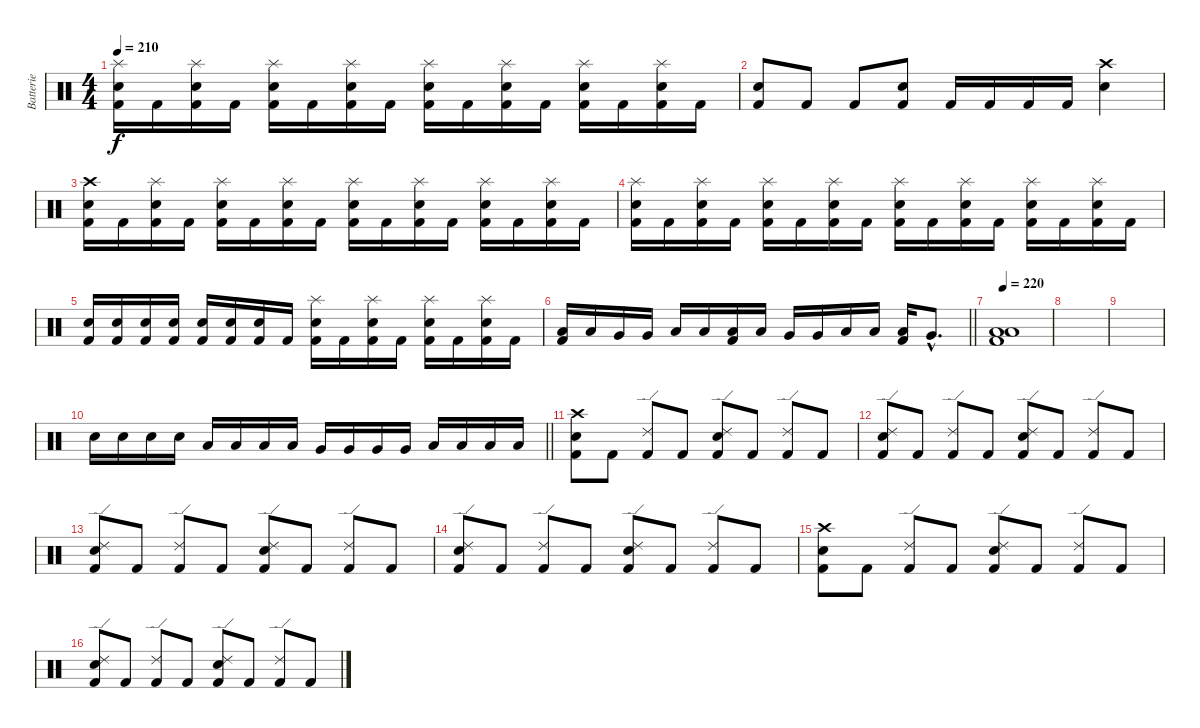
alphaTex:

\track ("Batterie" "Batterie") {instrument percussion}
\staff {score}
\articulation defaults
\ts (4 4)
\tempo 210
\clef neutral
\ks c
("Splash (hit)" "Electric Snare (hit)" "Kick (hit) 2").16{dy f} "Kick (hit) 2".16 ("Splash (hit)" "Electric Snare (hit)" "Kick (hit) 2").16 "Kick (hit) 2".16 ("Splash (hit)" "Electric Snare (hit)" "Kick (hit) 2").16 "Kick (hit) 2".16 ("Splash (hit)" "Electric Snare (hit)" "Kick (hit) 2").16 "Kick (hit) 2".16 ("Splash (hit)" "Electric Snare (hit)" "Kick (hit) 2").16 "Kick (hit) 2".16 ("Splash (hit)" "Electric Snare (hit)" "Kick (hit) 2").16 "Kick (hit) 2".16 ("Splash (hit)" "Electric Snare (hit)" "Kick (hit) 2").16 "Kick (hit) 2".16 ("Splash (hit)" "Electric Snare (hit)" "Kick (hit) 2").16 "Kick (hit) 2".16 |
("Electric Snare (hit)" "Kick (hit) 2").8 "Kick (hit) 2".8 "Kick (hit) 2".8 ("Electric Snare (hit)" "Kick (hit) 2").8 "Kick (hit) 2".16 "Kick (hit) 2".16 "Kick (hit) 2".16 "Kick (hit) 2".16 ("Crash high (hit)" "Electric Snare (hit)").4 |
("Crash high (hit)" "Electric Snare (hit)" "Kick (hit) 2").16 "Kick (hit) 2".16 ("Splash (hit)" "Electric Snare (hit)" "Kick (hit) 2").16 "Kick (hit) 2".16 ("Splash (hit)" "Electric Snare (hit)" "Kick (hit) 2").16 "Kick (hit) 2".16 ("Splash (hit)" "Electric Snare (hit)" "Kick (hit) 2").16 "Kick (hit) 2".16 ("Splash (hit)" "Electric Snare (hit)" "Kick (hit) 2").16 "Kick (hit) 2".16 ("Splash (hit)" "Electric Snare (hit)" "Kick (hit) 2").16 "Kick (hit) 2".16 ("Splash (hit)" "Electric Snare (hit)" "Kick (hit) 2").16 "Kick (hit) 2".16 ("Splash (hit)" "Electric Snare (hit)" "Kick (hit) 2").16 "Kick (hit) 2".16 |
("Splash (hit)" "Electric Snare (hit)" "Kick (hit) 2").16 "Kick (hit) 2".16 ("Splash (hit)" "Electric Snare (hit)" "Kick (hit) 2").16 "Kick (hit) 2".16 ("Splash (hit)" "Electric Snare (hit)" "Kick (hit) 2").16 "Kick (hit) 2".16 ("Splash (hit)" "Electric Snare (hit)" "Kick (hit) 2").16 "Kick (hit) 2".16 ("Splash (hit)" "Electric Snare (hit)" "Kick (hit) 2").16 "Kick (hit) 2".16 ("Splash (hit)" "Electric Snare (hit)" "Kick (hit) 2").16 "Kick (hit) 2".16 ("Splash (hit)" "Electric Snare (hit)" "Kick (hit) 2").16 "Kick (hit) 2".16 ("Splash (hit)" "Electric Snare (hit)" "Kick (hit) 2").16 "Kick (hit) 2".16 |
("Electric Snare (hit)" "Kick (hit) 2").16 ("Electric Snare (hit)" "Kick (hit) 2").16 ("Electric Snare (hit)" "Kick (hit) 2").16 ("Electric Snare (hit)" "Kick (hit) 2").16 ("Electric Snare (hit)" "Kick (hit) 2").16 ("Electric Snare (hit)" "Kick (hit) 2").16 ("Electric Snare (hit)" "Kick (hit) 2").16 "Kick (hit) 2".16 ("Splash (hit)" "Electric Snare (hit)" "Kick (hit) 2").16 "Kick (hit) 2".16 ("Splash (hit)" "Electric Snare (hit)" "Kick (hit) 2").16 "Kick (hit) 2".16 ("Splash (hit)" "Electric Snare (hit)" "Kick (hit) 2").16 "Kick (hit) 2".16 ("Splash (hit)" "Electric Snare (hit)" "Kick (hit) 2").16 "Kick (hit) 2".16 |
\barLineRight lightlight
("Low Tom (hit)" "Kick (hit) 2").16 "Low Tom (hit)".16 "Very Low Tom (hit)".16 "Very Low Tom (hit)".16 "Low Floor Tom (hit)".16 "Low Floor Tom (hit)".16 ("Low Tom (hit)" "Kick (hit) 2").16 "Low Tom (hit)".16 "Very Low Tom (hit)".16 "Very Low Tom (hit)".16 "Low Floor Tom (hit)".16 "Low Floor Tom (hit)".16 ("Low Tom (hit)" "Kick (hit) 2").16 "Very Low Tom (hit)"{hac}.8{d} |
\tempo 220
("Low Tom (hit)" "Low Floor Tom (hit)" "Kick (hit) 2").1 |
|
|
\barLineRight lightlight "Electric Snare (hit)".16 "Electric Snare (hit)".16 "Electric Snare (hit)".16 "Electric Snare (hit)".16 "Low Tom (hit)".16 "Low Tom (hit)".16 "Low Tom (hit)".16 "Low Tom (hit)".16 "Very Low Tom (hit)".16 "Very Low Tom (hit)".16 "Very Low Tom (hit)".16 "Very Low Tom (hit)".16 "Low Floor Tom (hit)".16 "Low Floor Tom (hit)".16 "Low Floor Tom (hit)".16 "Low Floor Tom (hit)".16
|
("Crash high (hit)" "Electric Snare (hit)" "Kick (hit) 2").8 "Kick (hit) 2".8 ("Ride (edge) 2" "Kick (hit) 2").8 "Kick (hit) 2".8 ("Ride (edge) 2" "Electric Snare (hit)" "Kick (hit) 2").8 "Kick (hit) 2".8 ("Ride (edge) 2" "Kick (hit) 2").8 "Kick (hit) 2".8 |
("Ride (edge) 2" "Electric Snare (hit)" "Kick (hit) 2").8 "Kick (hit) 2".8 ("Ride (edge) 2" "Kick (hit) 2").8 "Kick (hit) 2".8 ("Ride (edge) 2" "Electric Snare (hit)" "Kick (hit) 2").8 "Kick (hit) 2".8 ("Ride (edge) 2" "Kick (hit) 2").8 "Kick (hit) 2".8 |
("Ride (edge) 2" "Electric Snare (hit)" "Kick (hit) 2").8 "Kick (hit) 2".8 ("Ride (edge) 2" "Kick (hit) 2").8 "Kick (hit) 2".8 ("Ride (edge) 2" "Electric Snare (hit)" "Kick (hit) 2").8 "Kick (hit) 2".8 ("Ride (edge) 2" "Kick (hit) 2").8 "Kick (hit) 2".8 |
("Ride (edge) 2" "Electric Snare (hit)" "Kick (hit) 2").8 "Kick (hit) 2".8 ("Ride (edge) 2" "Kick (hit) 2").8 "Kick (hit) 2".8 ("Ride (edge) 2" "Electric Snare (hit)" "Kick (hit) 2").8 "Kick (hit) 2".8 ("Ride (edge) 2" "Kick (hit) 2").8 "Kick (hit) 2".8 |
("Crash high (hit)" "Electric Snare (hit)" "Kick (hit) 2").8 "Kick (hit) 2".8 ("Ride (edge) 2" "Kick (hit) 2").8 "Kick (hit) 2".8 ("Ride (edge) 2" "Electric Snare (hit)" "Kick (hit) 2").8 "Kick (hit) 2".8 ("Ride (edge) 2" "Kick (hit) 2").8 "Kick (hit) 2".8 |
("Ride (edge) 2" "Electric Snare (hit)" "Kick (hit) 2").8 "Kick (hit) 2".8 ("Ride (edge) 2" "Kick (hit) 2").8 "Kick (hit) 2".8 ("Ride (edge) 2" "Electric Snare (hit)" "Kick (hit) 2").8 "Kick (hit) 2".8 ("Ride (edge) 2" "Kick (hit) 2").8 "Kick (hit) 2".8
